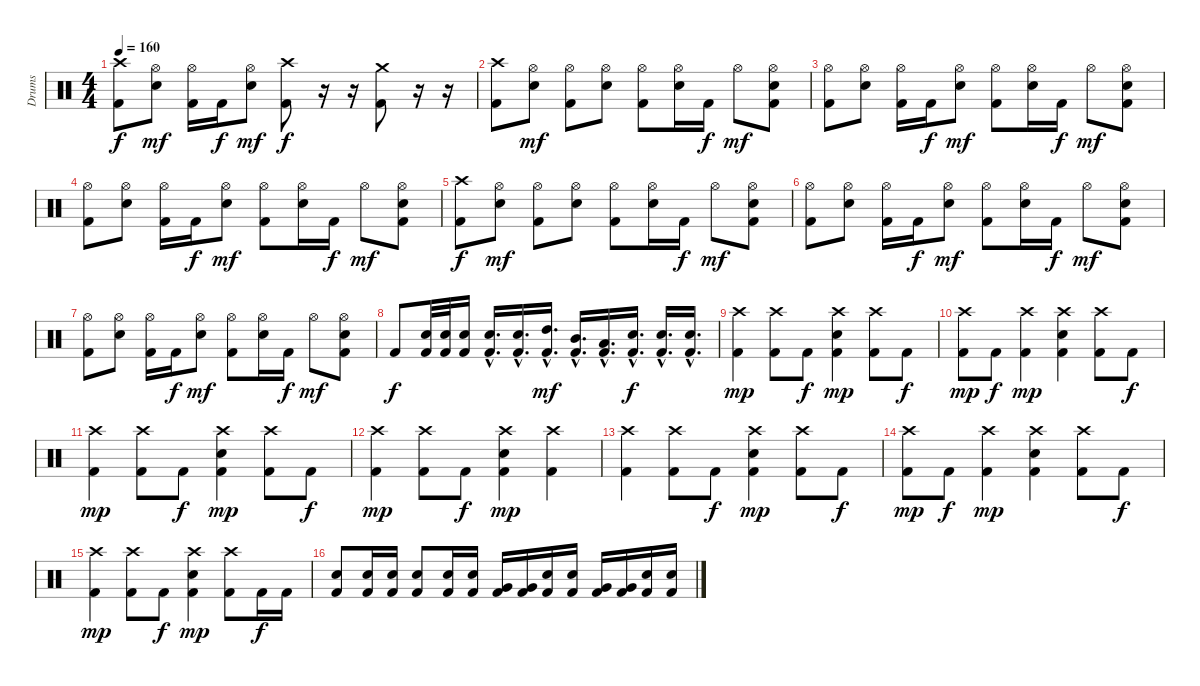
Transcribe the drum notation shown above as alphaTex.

\track ("Drums" "Drums") {instrument percussion}
\staff {score}
\articulation defaults
\ts (4 4)
\tempo 160
\clef neutral
\ks c
("Crash high (hit)" "Kick (hit) 2").8{dy f} ("Hi-Hat (open)" "Electric Snare (hit)").8{dy mf} ("Hi-Hat (open)" "Kick (hit) 2").16 "Kick (hit) 2".16{dy f} ("Hi-Hat (open)" "Electric Snare (hit)").8{dy mf} ("Crash high (hit)" "Kick (hit) 2").8{dy f} r.16 r.16 ("Crash medium (hit)" "Kick (hit) 2").8 r.16 r.16 |
("Crash high (hit)" "Kick (hit) 2").8 ("Hi-Hat (open)" "Electric Snare (hit)").8{dy mf} ("Hi-Hat (open)" "Kick (hit) 2").8 ("Hi-Hat (open)" "Electric Snare (hit)").8 ("Hi-Hat (open)" "Kick (hit) 2").8 ("Hi-Hat (open)" "Electric Snare (hit)").16 "Kick (hit) 2".16{dy f} "Hi-Hat (open)".8{dy mf} ("Hi-Hat (open)" "Electric Snare (hit)" "Kick (hit) 2").8 |
("Hi-Hat (open)" "Kick (hit) 2").8 ("Hi-Hat (open)" "Electric Snare (hit)").8 ("Hi-Hat (open)" "Kick (hit) 2").16 "Kick (hit) 2".16{dy f} ("Hi-Hat (open)" "Electric Snare (hit)").8{dy mf} ("Hi-Hat (open)" "Kick (hit) 2").8 ("Hi-Hat (open)" "Electric Snare (hit)").16 "Kick (hit) 2".16{dy f} "Hi-Hat (open)".8{dy mf} ("Hi-Hat (open)" "Electric Snare (hit)" "Kick (hit) 2").8 |
("Hi-Hat (open)" "Kick (hit) 2").8 ("Hi-Hat (open)" "Electric Snare (hit)").8 ("Hi-Hat (open)" "Kick (hit) 2").16 "Kick (hit) 2".16{dy f} ("Hi-Hat (open)" "Electric Snare (hit)").8{dy mf} ("Hi-Hat (open)" "Kick (hit) 2").8 ("Hi-Hat (open)" "Electric Snare (hit)").16 "Kick (hit) 2".16{dy f} "Hi-Hat (open)".8{dy mf} ("Hi-Hat (open)" "Electric Snare (hit)" "Kick (hit) 2").8 |
("Crash high (hit)" "Kick (hit) 2").8{dy f} ("Hi-Hat (open)" "Electric Snare (hit)").8{dy mf} ("Hi-Hat (open)" "Kick (hit) 2").8 ("Hi-Hat (open)" "Electric Snare (hit)").8 ("Hi-Hat (open)" "Kick (hit) 2").8 ("Hi-Hat (open)" "Electric Snare (hit)").16 "Kick (hit) 2".16{dy f} "Hi-Hat (open)".8{dy mf} ("Hi-Hat (open)" "Electric Snare (hit)" "Kick (hit) 2").8 |
("Hi-Hat (open)" "Kick (hit) 2").8 ("Hi-Hat (open)" "Electric Snare (hit)").8 ("Hi-Hat (open)" "Kick (hit) 2").16 "Kick (hit) 2".16{dy f} ("Hi-Hat (open)" "Electric Snare (hit)").8{dy mf} ("Hi-Hat (open)" "Kick (hit) 2").8 ("Hi-Hat (open)" "Electric Snare (hit)").16 "Kick (hit) 2".16{dy f} "Hi-Hat (open)".8{dy mf} ("Hi-Hat (open)" "Electric Snare (hit)" "Kick (hit) 2").8 |
("Hi-Hat (open)" "Kick (hit) 2").8 ("Hi-Hat (open)" "Electric Snare (hit)").8 ("Hi-Hat (open)" "Kick (hit) 2").16 "Kick (hit) 2".16{dy f} ("Hi-Hat (open)" "Electric Snare (hit)").8{dy mf} ("Hi-Hat (open)" "Kick (hit) 2").8 ("Hi-Hat (open)" "Electric Snare (hit)").16 "Kick (hit) 2".16{dy f} "Hi-Hat (open)".8{dy mf} ("Hi-Hat (open)" "Electric Snare (hit)" "Kick (hit) 2").8 |
"Kick (hit) 2".8{dy f} ("Electric Snare (hit)" "Kick (hit) 2").32 ("Electric Snare (hit)" "Kick (hit) 2").32 ("Electric Snare (hit)" "Kick (hit) 2").16 ("Electric Snare (hit)"{hac} "Kick (hit) 2"{hac}).16{d} ("Electric Snare (hit)"{hac} "Kick (hit) 2"{hac}).16{d} ("High Tom (hit)"{hac} "Kick (hit) 2"{hac}).16{d dy mf} ("Mid Tom (hit)"{hac} "Kick (hit) 2"{hac}).16{d} ("Low Tom (hit)"{hac} "Kick (hit) 2"{hac}).16{d} ("Electric Snare (hit)"{hac} "Kick (hit) 2"{hac}).16{d dy f} ("Electric Snare (hit)"{hac} "Kick (hit) 2"{hac}).16{d} ("Electric Snare (hit)"{hac} "Kick (hit) 2"{hac}).16{d} |
("Crash high (hit)" "Kick (hit) 2").4{dy mp} ("Crash high (hit)" "Kick (hit) 2").8 "Kick (hit) 2".8{dy f} ("Crash high (hit)" "Electric Snare (hit)" "Kick (hit) 2").4{dy mp} ("Crash high (hit)" "Kick (hit) 2").8 "Kick (hit) 2".8{dy f} |
("Crash high (hit)" "Kick (hit) 2").8{dy mp} "Kick (hit) 2".8{dy f} ("Crash high (hit)" "Kick (hit) 2").4{dy mp} ("Crash high (hit)" "Electric Snare (hit)" "Kick (hit) 2").4 ("Crash high (hit)" "Kick (hit) 2").8 "Kick (hit) 2".8{dy f} |
("Crash high (hit)" "Kick (hit) 2").4{dy mp} ("Crash high (hit)" "Kick (hit) 2").8 "Kick (hit) 2".8{dy f} ("Crash high (hit)" "Electric Snare (hit)" "Kick (hit) 2").4{dy mp} ("Crash high (hit)" "Kick (hit) 2").8 "Kick (hit) 2".8{dy f} |
("Crash high (hit)" "Kick (hit) 2").4{dy mp} ("Crash high (hit)" "Kick (hit) 2").8 "Kick (hit) 2".8{dy f} ("Crash high (hit)" "Electric Snare (hit)" "Kick (hit) 2").4{dy mp} ("Crash high (hit)" "Kick (hit) 2").4 |
("Crash high (hit)" "Kick (hit) 2").4 ("Crash high (hit)" "Kick (hit) 2").8 "Kick (hit) 2".8{dy f} ("Crash high (hit)" "Electric Snare (hit)" "Kick (hit) 2").4{dy mp} ("Crash high (hit)" "Kick (hit) 2").8 "Kick (hit) 2".8{dy f} |
("Crash high (hit)" "Kick (hit) 2").8{dy mp} "Kick (hit) 2".8{dy f} ("Crash high (hit)" "Kick (hit) 2").4{dy mp} ("Crash high (hit)" "Electric Snare (hit)" "Kick (hit) 2").4 ("Crash high (hit)" "Kick (hit) 2").8 "Kick (hit) 2".8{dy f} |
("Crash high (hit)" "Kick (hit) 2").4{dy mp} ("Crash high (hit)" "Kick (hit) 2").8 "Kick (hit) 2".8{dy f} ("Crash high (hit)" "Electric Snare (hit)" "Kick (hit) 2").4{dy mp} ("Crash high (hit)" "Kick (hit) 2").8 "Kick (hit) 2".16{dy f} "Kick (hit) 2".16 |
("Electric Snare (hit)" "Kick (hit) 2").8 ("Electric Snare (hit)" "Kick (hit) 2").16 ("Electric Snare (hit)" "Kick (hit) 2").16 ("Electric Snare (hit)" "Kick (hit) 2").8 ("Electric Snare (hit)" "Kick (hit) 2").16 ("Electric Snare (hit)" "Kick (hit) 2").16 ("Very Low Tom (hit)" "Kick (hit) 2").16 ("Very Low Tom (hit)" "Kick (hit) 2").16 ("Electric Snare (hit)" "Kick (hit) 2").16 ("Electric Snare (hit)" "Kick (hit) 2").16 ("Very Low Tom (hit)" "Kick (hit) 2").16 ("Very Low Tom (hit)" "Kick (hit) 2").16 ("Electric Snare (hit)" "Kick (hit) 2").16 ("Electric Snare (hit)" "Kick (hit) 2").16
